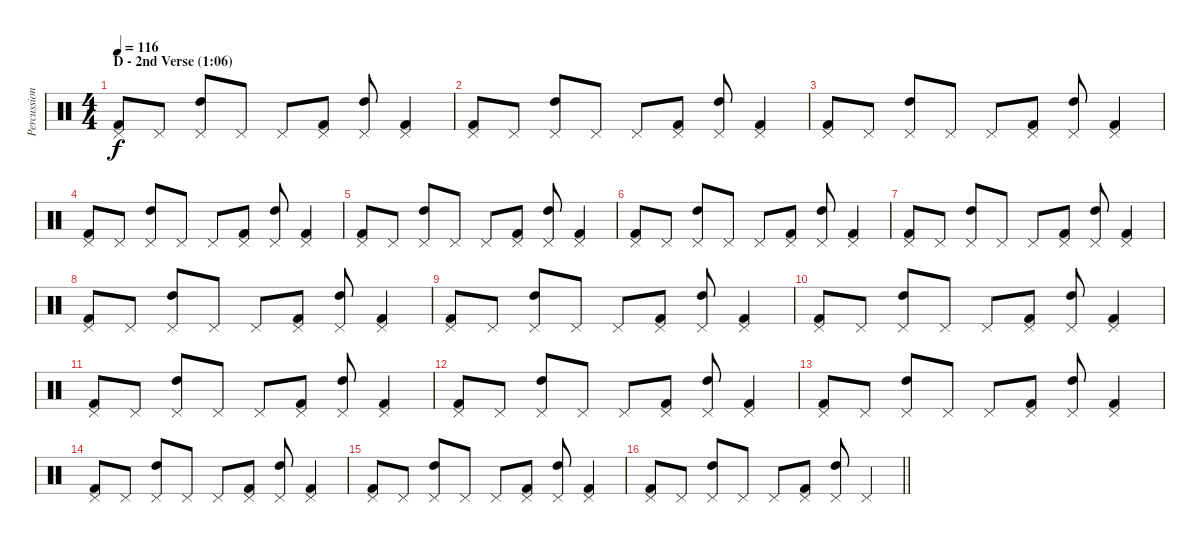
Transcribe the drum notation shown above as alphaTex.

\track ("Percussion" "Percussion") {instrument percussion}
\staff {score}
\articulation defaults
\ts (4 4)
\section ("" "D - 2nd Verse (1:06)")
\tempo 116
\clef neutral
\ks c
("Kick (hit) 2" "Pedal Hi-Hat (hit)").8{dy f} "Pedal Hi-Hat (hit)".8 ("High Tom (hit)" "Pedal Hi-Hat (hit)").8 "Pedal Hi-Hat (hit)".8 "Pedal Hi-Hat (hit)".8 ("Kick (hit) 2" "Pedal Hi-Hat (hit)").8 ("High Tom (hit)" "Pedal Hi-Hat (hit)").8 ("Kick (hit) 2" "Pedal Hi-Hat (hit)").4 |
("Kick (hit) 2" "Pedal Hi-Hat (hit)").8 "Pedal Hi-Hat (hit)".8 ("High Tom (hit)" "Pedal Hi-Hat (hit)").8 "Pedal Hi-Hat (hit)".8 "Pedal Hi-Hat (hit)".8 ("Kick (hit) 2" "Pedal Hi-Hat (hit)").8 ("High Tom (hit)" "Pedal Hi-Hat (hit)").8 ("Kick (hit) 2" "Pedal Hi-Hat (hit)").4 |
("Kick (hit) 2" "Pedal Hi-Hat (hit)").8 "Pedal Hi-Hat (hit)".8 ("High Tom (hit)" "Pedal Hi-Hat (hit)").8 "Pedal Hi-Hat (hit)".8 "Pedal Hi-Hat (hit)".8 ("Kick (hit) 2" "Pedal Hi-Hat (hit)").8 ("High Tom (hit)" "Pedal Hi-Hat (hit)").8 ("Kick (hit) 2" "Pedal Hi-Hat (hit)").4 |
("Kick (hit) 2" "Pedal Hi-Hat (hit)").8 "Pedal Hi-Hat (hit)".8 ("High Tom (hit)" "Pedal Hi-Hat (hit)").8 "Pedal Hi-Hat (hit)".8 "Pedal Hi-Hat (hit)".8 ("Kick (hit) 2" "Pedal Hi-Hat (hit)").8 ("High Tom (hit)" "Pedal Hi-Hat (hit)").8 ("Kick (hit) 2" "Pedal Hi-Hat (hit)").4 |
("Kick (hit) 2" "Pedal Hi-Hat (hit)").8 "Pedal Hi-Hat (hit)".8 ("High Tom (hit)" "Pedal Hi-Hat (hit)").8 "Pedal Hi-Hat (hit)".8 "Pedal Hi-Hat (hit)".8 ("Kick (hit) 2" "Pedal Hi-Hat (hit)").8 ("High Tom (hit)" "Pedal Hi-Hat (hit)").8 ("Kick (hit) 2" "Pedal Hi-Hat (hit)").4 |
("Kick (hit) 2" "Pedal Hi-Hat (hit)").8 "Pedal Hi-Hat (hit)".8 ("High Tom (hit)" "Pedal Hi-Hat (hit)").8 "Pedal Hi-Hat (hit)".8 "Pedal Hi-Hat (hit)".8 ("Kick (hit) 2" "Pedal Hi-Hat (hit)").8 ("High Tom (hit)" "Pedal Hi-Hat (hit)").8 ("Kick (hit) 2" "Pedal Hi-Hat (hit)").4 |
("Kick (hit) 2" "Pedal Hi-Hat (hit)").8 "Pedal Hi-Hat (hit)".8 ("High Tom (hit)" "Pedal Hi-Hat (hit)").8 "Pedal Hi-Hat (hit)".8 "Pedal Hi-Hat (hit)".8 ("Kick (hit) 2" "Pedal Hi-Hat (hit)").8 ("High Tom (hit)" "Pedal Hi-Hat (hit)").8 ("Kick (hit) 2" "Pedal Hi-Hat (hit)").4 |
("Kick (hit) 2" "Pedal Hi-Hat (hit)").8 "Pedal Hi-Hat (hit)".8 ("High Tom (hit)" "Pedal Hi-Hat (hit)").8 "Pedal Hi-Hat (hit)".8 "Pedal Hi-Hat (hit)".8 ("Kick (hit) 2" "Pedal Hi-Hat (hit)").8 ("High Tom (hit)" "Pedal Hi-Hat (hit)").8 ("Kick (hit) 2" "Pedal Hi-Hat (hit)").4 |
("Kick (hit) 2" "Pedal Hi-Hat (hit)").8 "Pedal Hi-Hat (hit)".8 ("High Tom (hit)" "Pedal Hi-Hat (hit)").8 "Pedal Hi-Hat (hit)".8 "Pedal Hi-Hat (hit)".8 ("Kick (hit) 2" "Pedal Hi-Hat (hit)").8 ("High Tom (hit)" "Pedal Hi-Hat (hit)").8 ("Kick (hit) 2" "Pedal Hi-Hat (hit)").4 |
("Kick (hit) 2" "Pedal Hi-Hat (hit)").8 "Pedal Hi-Hat (hit)".8 ("High Tom (hit)" "Pedal Hi-Hat (hit)").8 "Pedal Hi-Hat (hit)".8 "Pedal Hi-Hat (hit)".8 ("Kick (hit) 2" "Pedal Hi-Hat (hit)").8 ("High Tom (hit)" "Pedal Hi-Hat (hit)").8 ("Kick (hit) 2" "Pedal Hi-Hat (hit)").4 |
("Kick (hit) 2" "Pedal Hi-Hat (hit)").8 "Pedal Hi-Hat (hit)".8 ("High Tom (hit)" "Pedal Hi-Hat (hit)").8 "Pedal Hi-Hat (hit)".8 "Pedal Hi-Hat (hit)".8 ("Kick (hit) 2" "Pedal Hi-Hat (hit)").8 ("High Tom (hit)" "Pedal Hi-Hat (hit)").8 ("Kick (hit) 2" "Pedal Hi-Hat (hit)").4 |
("Kick (hit) 2" "Pedal Hi-Hat (hit)").8 "Pedal Hi-Hat (hit)".8 ("High Tom (hit)" "Pedal Hi-Hat (hit)").8 "Pedal Hi-Hat (hit)".8 "Pedal Hi-Hat (hit)".8 ("Kick (hit) 2" "Pedal Hi-Hat (hit)").8 ("High Tom (hit)" "Pedal Hi-Hat (hit)").8 ("Kick (hit) 2" "Pedal Hi-Hat (hit)").4 |
("Kick (hit) 2" "Pedal Hi-Hat (hit)").8 "Pedal Hi-Hat (hit)".8 ("High Tom (hit)" "Pedal Hi-Hat (hit)").8 "Pedal Hi-Hat (hit)".8 "Pedal Hi-Hat (hit)".8 ("Kick (hit) 2" "Pedal Hi-Hat (hit)").8 ("High Tom (hit)" "Pedal Hi-Hat (hit)").8 ("Kick (hit) 2" "Pedal Hi-Hat (hit)").4 |
("Kick (hit) 2" "Pedal Hi-Hat (hit)").8 "Pedal Hi-Hat (hit)".8 ("High Tom (hit)" "Pedal Hi-Hat (hit)").8 "Pedal Hi-Hat (hit)".8 "Pedal Hi-Hat (hit)".8 ("Kick (hit) 2" "Pedal Hi-Hat (hit)").8 ("High Tom (hit)" "Pedal Hi-Hat (hit)").8 ("Kick (hit) 2" "Pedal Hi-Hat (hit)").4 |
("Kick (hit) 2" "Pedal Hi-Hat (hit)").8 "Pedal Hi-Hat (hit)".8 ("High Tom (hit)" "Pedal Hi-Hat (hit)").8 "Pedal Hi-Hat (hit)".8 "Pedal Hi-Hat (hit)".8 ("Kick (hit) 2" "Pedal Hi-Hat (hit)").8 ("High Tom (hit)" "Pedal Hi-Hat (hit)").8 ("Kick (hit) 2" "Pedal Hi-Hat (hit)").4 |
\barLineRight lightlight
("Kick (hit) 2" "Pedal Hi-Hat (hit)").8 "Pedal Hi-Hat (hit)".8 ("High Tom (hit)" "Pedal Hi-Hat (hit)").8 "Pedal Hi-Hat (hit)".8 "Pedal Hi-Hat (hit)".8 ("Kick (hit) 2" "Pedal Hi-Hat (hit)").8 ("High Tom (hit)" "Pedal Hi-Hat (hit)").8 "Pedal Hi-Hat (hit)".4
